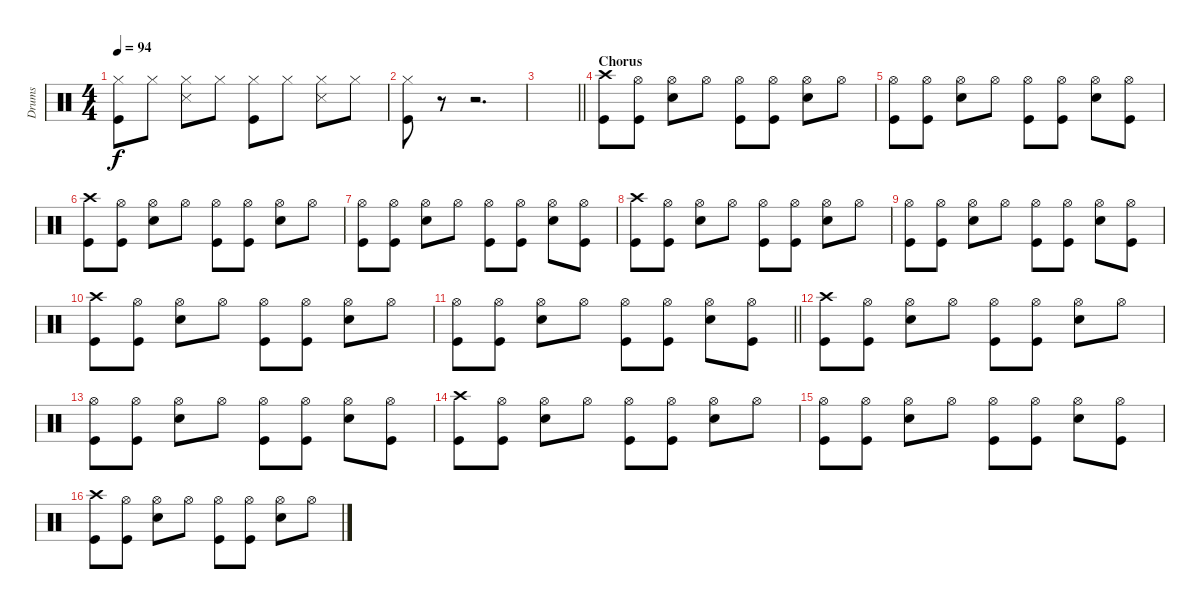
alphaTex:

\track ("Drums" "Drums") {instrument percussion}
\staff {score}
\articulation defaults
\ts (4 4)
\tempo 94
\clef neutral
\ks c
("Hi-Hat (closed)" "Kick (hit)").8{dy f} "Hi-Hat (closed)".8 ("Hi-Hat (closed)" "Snare (side stick) 3").8 "Hi-Hat (closed)".8 ("Hi-Hat (closed)" "Kick (hit)").8 "Hi-Hat (closed)".8 ("Hi-Hat (closed)" "Snare (side stick) 3").8 "Hi-Hat (closed)".8 |
("Kick (hit)" "Hi-Hat (closed)").8 r.8 r.2{d} |
\barLineRight lightlight
|
\section ("" "Chorus")
("Crash high (hit)" "Kick (hit)").8 ("Hi-Hat (open)" "Kick (hit)").8 ("Hi-Hat (open)" "Snare (hit) 2").8 "Hi-Hat (open)".8 ("Hi-Hat (open)" "Kick (hit)").8 ("Hi-Hat (open)" "Kick (hit)").8 ("Hi-Hat (open)" "Snare (hit) 2").8 "Hi-Hat (open)".8 |
("Hi-Hat (open)" "Kick (hit)").8 ("Hi-Hat (open)" "Kick (hit)").8 ("Hi-Hat (open)" "Snare (hit) 2").8 "Hi-Hat (open)".8 ("Hi-Hat (open)" "Kick (hit)").8 ("Hi-Hat (open)" "Kick (hit)").8 ("Hi-Hat (open)" "Snare (hit) 2").8 ("Hi-Hat (open)" "Kick (hit)").8 |
("Crash high (hit)" "Kick (hit)").8 ("Hi-Hat (open)" "Kick (hit)").8 ("Hi-Hat (open)" "Snare (hit) 2").8 "Hi-Hat (open)".8 ("Hi-Hat (open)" "Kick (hit)").8 ("Hi-Hat (open)" "Kick (hit)").8 ("Hi-Hat (open)" "Snare (hit) 2").8 "Hi-Hat (open)".8 |
("Hi-Hat (open)" "Kick (hit)").8 ("Hi-Hat (open)" "Kick (hit)").8 ("Hi-Hat (open)" "Snare (hit) 2").8 "Hi-Hat (open)".8 ("Hi-Hat (open)" "Kick (hit)").8 ("Hi-Hat (open)" "Kick (hit)").8 ("Hi-Hat (open)" "Snare (hit) 2").8 ("Hi-Hat (open)" "Kick (hit)").8 |
("Crash high (hit)" "Kick (hit)").8 ("Hi-Hat (open)" "Kick (hit)").8 ("Hi-Hat (open)" "Snare (hit) 2").8 "Hi-Hat (open)".8 ("Hi-Hat (open)" "Kick (hit)").8 ("Hi-Hat (open)" "Kick (hit)").8 ("Hi-Hat (open)" "Snare (hit) 2").8 "Hi-Hat (open)".8 |
("Hi-Hat (open)" "Kick (hit)").8 ("Hi-Hat (open)" "Kick (hit)").8 ("Hi-Hat (open)" "Snare (hit) 2").8 "Hi-Hat (open)".8 ("Hi-Hat (open)" "Kick (hit)").8 ("Hi-Hat (open)" "Kick (hit)").8 ("Hi-Hat (open)" "Snare (hit) 2").8 ("Hi-Hat (open)" "Kick (hit)").8 |
("Crash high (hit)" "Kick (hit)").8 ("Hi-Hat (open)" "Kick (hit)").8 ("Hi-Hat (open)" "Snare (hit) 2").8 "Hi-Hat (open)".8 ("Hi-Hat (open)" "Kick (hit)").8 ("Hi-Hat (open)" "Kick (hit)").8 ("Hi-Hat (open)" "Snare (hit) 2").8 "Hi-Hat (open)".8 |
\barLineRight lightlight
("Hi-Hat (open)" "Kick (hit)").8 ("Hi-Hat (open)" "Kick (hit)").8 ("Hi-Hat (open)" "Snare (hit) 2").8 "Hi-Hat (open)".8 ("Hi-Hat (open)" "Kick (hit)").8 ("Hi-Hat (open)" "Kick (hit)").8 ("Hi-Hat (open)" "Snare (hit) 2").8 ("Hi-Hat (open)" "Kick (hit)").8 |
("Crash high (hit)" "Kick (hit)").8 ("Hi-Hat (open)" "Kick (hit)").8 ("Hi-Hat (open)" "Snare (hit) 2").8 "Hi-Hat (open)".8 ("Hi-Hat (open)" "Kick (hit)").8 ("Hi-Hat (open)" "Kick (hit)").8 ("Hi-Hat (open)" "Snare (hit) 2").8 "Hi-Hat (open)".8 |
("Hi-Hat (open)" "Kick (hit)").8 ("Hi-Hat (open)" "Kick (hit)").8 ("Hi-Hat (open)" "Snare (hit) 2").8 "Hi-Hat (open)".8 ("Hi-Hat (open)" "Kick (hit)").8 ("Hi-Hat (open)" "Kick (hit)").8 ("Hi-Hat (open)" "Snare (hit) 2").8 ("Hi-Hat (open)" "Kick (hit)").8 |
("Crash high (hit)" "Kick (hit)").8 ("Hi-Hat (open)" "Kick (hit)").8 ("Hi-Hat (open)" "Snare (hit) 2").8 "Hi-Hat (open)".8 ("Hi-Hat (open)" "Kick (hit)").8 ("Hi-Hat (open)" "Kick (hit)").8 ("Hi-Hat (open)" "Snare (hit) 2").8 "Hi-Hat (open)".8 |
("Hi-Hat (open)" "Kick (hit)").8 ("Hi-Hat (open)" "Kick (hit)").8 ("Hi-Hat (open)" "Snare (hit) 2").8 "Hi-Hat (open)".8 ("Hi-Hat (open)" "Kick (hit)").8 ("Hi-Hat (open)" "Kick (hit)").8 ("Hi-Hat (open)" "Snare (hit) 2").8 ("Hi-Hat (open)" "Kick (hit)").8 |
("Crash high (hit)" "Kick (hit)").8 ("Hi-Hat (open)" "Kick (hit)").8 ("Hi-Hat (open)" "Snare (hit) 2").8 "Hi-Hat (open)".8 ("Hi-Hat (open)" "Kick (hit)").8 ("Hi-Hat (open)" "Kick (hit)").8 ("Hi-Hat (open)" "Snare (hit) 2").8 "Hi-Hat (open)".8
